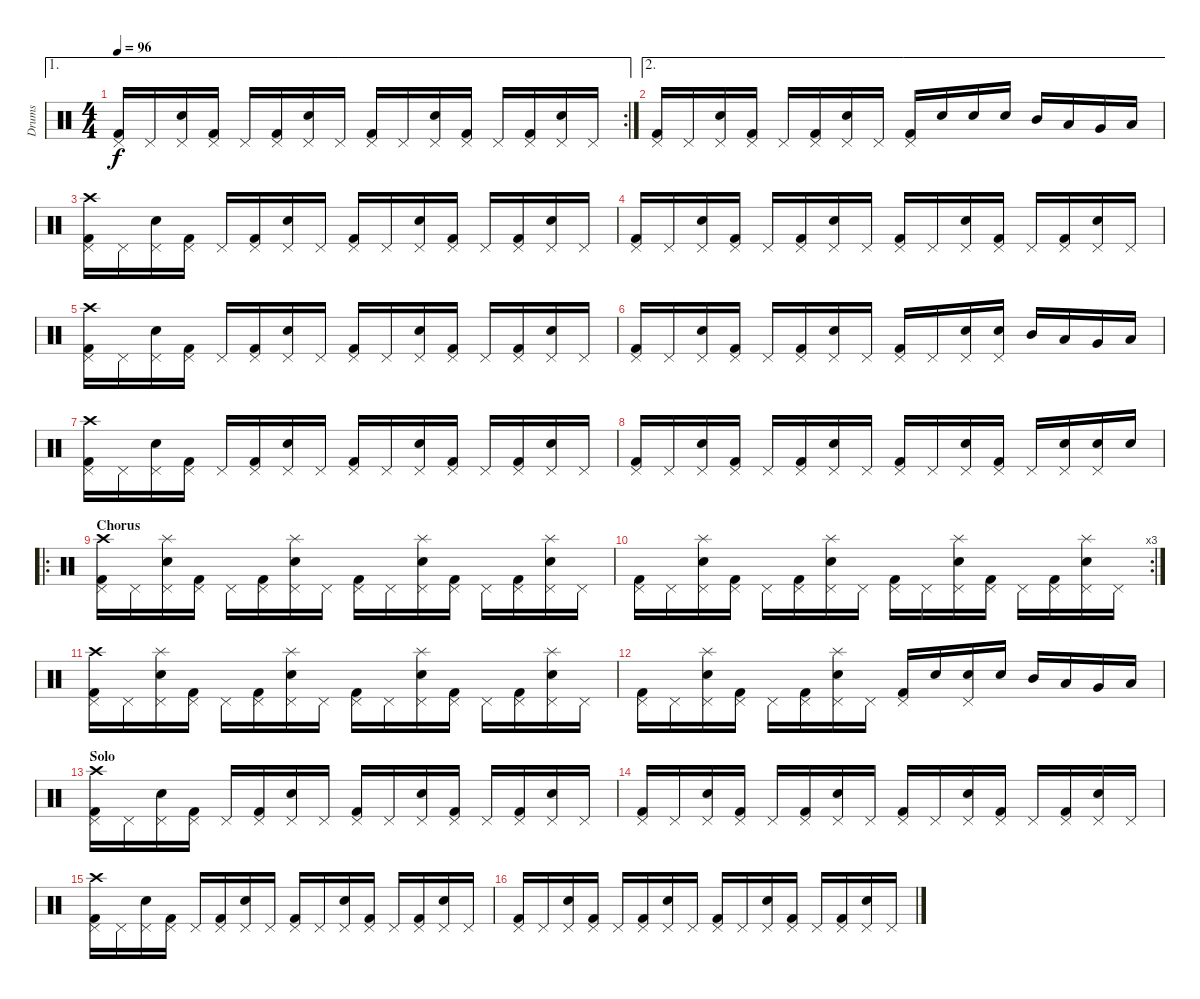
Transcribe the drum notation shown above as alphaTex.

\track ("Drums" "Drums") {instrument percussion}
\staff {score}
\articulation defaults
\ae 1
\rc 2
\ts (4 4)
\tempo 96
\clef neutral
\ks c
("Kick (hit) 2" "Pedal Hi-Hat (hit)").16{dy f} "Pedal Hi-Hat (hit)".16 ("Snare (hit) 2" "Pedal Hi-Hat (hit)").16 ("Kick (hit) 2" "Pedal Hi-Hat (hit)").16 "Pedal Hi-Hat (hit)".16 ("Kick (hit) 2" "Pedal Hi-Hat (hit)").16 ("Snare (hit) 2" "Pedal Hi-Hat (hit)").16 "Pedal Hi-Hat (hit)".16 ("Kick (hit) 2" "Pedal Hi-Hat (hit)").16 "Pedal Hi-Hat (hit)".16 ("Snare (hit) 2" "Pedal Hi-Hat (hit)").16 ("Kick (hit) 2" "Pedal Hi-Hat (hit)").16 "Pedal Hi-Hat (hit)".16 ("Kick (hit) 2" "Pedal Hi-Hat (hit)").16 ("Snare (hit) 2" "Pedal Hi-Hat (hit)").16 "Pedal Hi-Hat (hit)".16 |
\ae 2
("Kick (hit) 2" "Pedal Hi-Hat (hit)").16 "Pedal Hi-Hat (hit)".16 ("Snare (hit) 2" "Pedal Hi-Hat (hit)").16 ("Kick (hit) 2" "Pedal Hi-Hat (hit)").16 "Pedal Hi-Hat (hit)".16 ("Kick (hit) 2" "Pedal Hi-Hat (hit)").16 ("Snare (hit) 2" "Pedal Hi-Hat (hit)").16 "Pedal Hi-Hat (hit)".16 ("Kick (hit) 2" "Pedal Hi-Hat (hit)").16 "Snare (hit) 2".16 "Snare (hit) 2".16 "Snare (hit) 2".16 "Mid Tom (hit)".16 "Low Tom (hit)".16 "Very Low Tom (hit)".16 "Low Floor Tom (hit)".16 |
("Kick (hit) 2" "Pedal Hi-Hat (hit)" "Crash high (hit)").16 "Pedal Hi-Hat (hit)".16 ("Snare (hit) 2" "Pedal Hi-Hat (hit)").16 ("Kick (hit) 2" "Pedal Hi-Hat (hit)").16 "Pedal Hi-Hat (hit)".16 ("Kick (hit) 2" "Pedal Hi-Hat (hit)").16 ("Snare (hit) 2" "Pedal Hi-Hat (hit)").16 "Pedal Hi-Hat (hit)".16 ("Kick (hit) 2" "Pedal Hi-Hat (hit)").16 "Pedal Hi-Hat (hit)".16 ("Snare (hit) 2" "Pedal Hi-Hat (hit)").16 ("Kick (hit) 2" "Pedal Hi-Hat (hit)").16 "Pedal Hi-Hat (hit)".16 ("Kick (hit) 2" "Pedal Hi-Hat (hit)").16 ("Snare (hit) 2" "Pedal Hi-Hat (hit)").16 "Pedal Hi-Hat (hit)".16 |
("Kick (hit) 2" "Pedal Hi-Hat (hit)").16 "Pedal Hi-Hat (hit)".16 ("Snare (hit) 2" "Pedal Hi-Hat (hit)").16 ("Kick (hit) 2" "Pedal Hi-Hat (hit)").16 "Pedal Hi-Hat (hit)".16 ("Kick (hit) 2" "Pedal Hi-Hat (hit)").16 ("Snare (hit) 2" "Pedal Hi-Hat (hit)").16 "Pedal Hi-Hat (hit)".16 ("Kick (hit) 2" "Pedal Hi-Hat (hit)").16 "Pedal Hi-Hat (hit)".16 ("Snare (hit) 2" "Pedal Hi-Hat (hit)").16 ("Kick (hit) 2" "Pedal Hi-Hat (hit)").16 "Pedal Hi-Hat (hit)".16 ("Kick (hit) 2" "Pedal Hi-Hat (hit)").16 ("Snare (hit) 2" "Pedal Hi-Hat (hit)").16 "Pedal Hi-Hat (hit)".16 |
("Kick (hit) 2" "Pedal Hi-Hat (hit)" "Crash high (hit)").16 "Pedal Hi-Hat (hit)".16 ("Snare (hit) 2" "Pedal Hi-Hat (hit)").16 ("Kick (hit) 2" "Pedal Hi-Hat (hit)").16 "Pedal Hi-Hat (hit)".16 ("Kick (hit) 2" "Pedal Hi-Hat (hit)").16 ("Snare (hit) 2" "Pedal Hi-Hat (hit)").16 "Pedal Hi-Hat (hit)".16 ("Kick (hit) 2" "Pedal Hi-Hat (hit)").16 "Pedal Hi-Hat (hit)".16 ("Snare (hit) 2" "Pedal Hi-Hat (hit)").16 ("Kick (hit) 2" "Pedal Hi-Hat (hit)").16 "Pedal Hi-Hat (hit)".16 ("Kick (hit) 2" "Pedal Hi-Hat (hit)").16 ("Snare (hit) 2" "Pedal Hi-Hat (hit)").16 "Pedal Hi-Hat (hit)".16 |
("Kick (hit) 2" "Pedal Hi-Hat (hit)").16 "Pedal Hi-Hat (hit)".16 ("Snare (hit) 2" "Pedal Hi-Hat (hit)").16 ("Kick (hit) 2" "Pedal Hi-Hat (hit)").16 "Pedal Hi-Hat (hit)".16 ("Kick (hit) 2" "Pedal Hi-Hat (hit)").16 ("Snare (hit) 2" "Pedal Hi-Hat (hit)").16 "Pedal Hi-Hat (hit)".16 ("Kick (hit) 2" "Pedal Hi-Hat (hit)").16 "Pedal Hi-Hat (hit)".16 ("Snare (hit) 2" "Pedal Hi-Hat (hit)").16 ("Snare (hit) 2" "Pedal Hi-Hat (hit)").16 "Mid Tom (hit)".16 "Low Tom (hit)".16 "Very Low Tom (hit)".16 "Low Floor Tom (hit)".16 |
("Kick (hit) 2" "Pedal Hi-Hat (hit)" "Crash high (hit)").16 "Pedal Hi-Hat (hit)".16 ("Snare (hit) 2" "Pedal Hi-Hat (hit)").16 ("Kick (hit) 2" "Pedal Hi-Hat (hit)").16 "Pedal Hi-Hat (hit)".16 ("Kick (hit) 2" "Pedal Hi-Hat (hit)").16 ("Snare (hit) 2" "Pedal Hi-Hat (hit)").16 "Pedal Hi-Hat (hit)".16 ("Kick (hit) 2" "Pedal Hi-Hat (hit)").16 "Pedal Hi-Hat (hit)".16 ("Snare (hit) 2" "Pedal Hi-Hat (hit)").16 ("Kick (hit) 2" "Pedal Hi-Hat (hit)").16 "Pedal Hi-Hat (hit)".16 ("Kick (hit) 2" "Pedal Hi-Hat (hit)").16 ("Snare (hit) 2" "Pedal Hi-Hat (hit)").16 "Pedal Hi-Hat (hit)".16 |
("Kick (hit) 2" "Pedal Hi-Hat (hit)").16 "Pedal Hi-Hat (hit)".16 ("Snare (hit) 2" "Pedal Hi-Hat (hit)").16 ("Kick (hit) 2" "Pedal Hi-Hat (hit)").16 "Pedal Hi-Hat (hit)".16 ("Kick (hit) 2" "Pedal Hi-Hat (hit)").16 ("Snare (hit) 2" "Pedal Hi-Hat (hit)").16 "Pedal Hi-Hat (hit)".16 ("Kick (hit) 2" "Pedal Hi-Hat (hit)").16 "Pedal Hi-Hat (hit)".16 ("Snare (hit) 2" "Pedal Hi-Hat (hit)").16 ("Kick (hit) 2" "Pedal Hi-Hat (hit)").16 "Pedal Hi-Hat (hit)".16 ("Snare (hit) 2" "Pedal Hi-Hat (hit)").16 ("Snare (hit) 2" "Pedal Hi-Hat (hit)").16 "Snare (hit) 2".16 |
\ro
\section ("" "Chorus")
("Kick (hit) 2" "Pedal Hi-Hat (hit)" "Crash high (hit)").16 "Pedal Hi-Hat (hit)".16 ("Snare (hit) 2" "Pedal Hi-Hat (hit)" "Splash (hit)").16 ("Kick (hit) 2" "Pedal Hi-Hat (hit)").16 "Pedal Hi-Hat (hit)".16 ("Kick (hit) 2" "Pedal Hi-Hat (hit)").16 ("Snare (hit) 2" "Pedal Hi-Hat (hit)" "Splash (hit)").16 "Pedal Hi-Hat (hit)".16 ("Kick (hit) 2" "Pedal Hi-Hat (hit)").16 "Pedal Hi-Hat (hit)".16 ("Snare (hit) 2" "Pedal Hi-Hat (hit)" "Splash (hit)").16 ("Kick (hit) 2" "Pedal Hi-Hat (hit)").16 "Pedal Hi-Hat (hit)".16 ("Kick (hit) 2" "Pedal Hi-Hat (hit)").16 ("Snare (hit) 2" "Pedal Hi-Hat (hit)" "Splash (hit)").16 "Pedal Hi-Hat (hit)".16 |
\rc 3
("Kick (hit) 2" "Pedal Hi-Hat (hit)").16 "Pedal Hi-Hat (hit)".16 ("Snare (hit) 2" "Pedal Hi-Hat (hit)" "Splash (hit)").16 ("Kick (hit) 2" "Pedal Hi-Hat (hit)").16 "Pedal Hi-Hat (hit)".16 ("Kick (hit) 2" "Pedal Hi-Hat (hit)").16 ("Snare (hit) 2" "Pedal Hi-Hat (hit)" "Splash (hit)").16 "Pedal Hi-Hat (hit)".16 ("Kick (hit) 2" "Pedal Hi-Hat (hit)").16 "Pedal Hi-Hat (hit)".16 ("Snare (hit) 2" "Pedal Hi-Hat (hit)" "Splash (hit)").16 ("Kick (hit) 2" "Pedal Hi-Hat (hit)").16 "Pedal Hi-Hat (hit)".16 ("Kick (hit) 2" "Pedal Hi-Hat (hit)").16 ("Snare (hit) 2" "Pedal Hi-Hat (hit)" "Splash (hit)").16 "Pedal Hi-Hat (hit)".16 |
("Kick (hit) 2" "Pedal Hi-Hat (hit)" "Crash high (hit)").16 "Pedal Hi-Hat (hit)".16 ("Snare (hit) 2" "Pedal Hi-Hat (hit)" "Splash (hit)").16 ("Kick (hit) 2" "Pedal Hi-Hat (hit)").16 "Pedal Hi-Hat (hit)".16 ("Kick (hit) 2" "Pedal Hi-Hat (hit)").16 ("Snare (hit) 2" "Pedal Hi-Hat (hit)" "Splash (hit)").16 "Pedal Hi-Hat (hit)".16 ("Kick (hit) 2" "Pedal Hi-Hat (hit)").16 "Pedal Hi-Hat (hit)".16 ("Snare (hit) 2" "Pedal Hi-Hat (hit)" "Splash (hit)").16 ("Kick (hit) 2" "Pedal Hi-Hat (hit)").16 "Pedal Hi-Hat (hit)".16 ("Kick (hit) 2" "Pedal Hi-Hat (hit)").16 ("Snare (hit) 2" "Pedal Hi-Hat (hit)" "Splash (hit)").16 "Pedal Hi-Hat (hit)".16 |
("Kick (hit) 2" "Pedal Hi-Hat (hit)").16 "Pedal Hi-Hat (hit)".16 ("Snare (hit) 2" "Pedal Hi-Hat (hit)" "Splash (hit)").16 ("Kick (hit) 2" "Pedal Hi-Hat (hit)").16 "Pedal Hi-Hat (hit)".16 ("Kick (hit) 2" "Pedal Hi-Hat (hit)").16 ("Snare (hit) 2" "Pedal Hi-Hat (hit)" "Splash (hit)").16 "Pedal Hi-Hat (hit)".16 ("Kick (hit) 2" "Pedal Hi-Hat (hit)").16 "Snare (hit) 2".16 ("Snare (hit) 2" "Pedal Hi-Hat (hit)").16 "Snare (hit) 2".16 "Mid Tom (hit)".16 "Low Tom (hit)".16 "Very Low Tom (hit)".16 "Low Floor Tom (hit)".16 |
\section ("" "Solo")
("Kick (hit) 2" "Pedal Hi-Hat (hit)" "Crash high (hit)").16 "Pedal Hi-Hat (hit)".16 ("Snare (hit) 2" "Pedal Hi-Hat (hit)").16 ("Kick (hit) 2" "Pedal Hi-Hat (hit)").16 "Pedal Hi-Hat (hit)".16 ("Kick (hit) 2" "Pedal Hi-Hat (hit)").16 ("Snare (hit) 2" "Pedal Hi-Hat (hit)").16 "Pedal Hi-Hat (hit)".16 ("Kick (hit) 2" "Pedal Hi-Hat (hit)").16 "Pedal Hi-Hat (hit)".16 ("Snare (hit) 2" "Pedal Hi-Hat (hit)").16 ("Kick (hit) 2" "Pedal Hi-Hat (hit)").16 "Pedal Hi-Hat (hit)".16 ("Kick (hit) 2" "Pedal Hi-Hat (hit)").16 ("Snare (hit) 2" "Pedal Hi-Hat (hit)").16 "Pedal Hi-Hat (hit)".16 |
("Kick (hit) 2" "Pedal Hi-Hat (hit)").16 "Pedal Hi-Hat (hit)".16 ("Snare (hit) 2" "Pedal Hi-Hat (hit)").16 ("Kick (hit) 2" "Pedal Hi-Hat (hit)").16 "Pedal Hi-Hat (hit)".16 ("Kick (hit) 2" "Pedal Hi-Hat (hit)").16 ("Snare (hit) 2" "Pedal Hi-Hat (hit)").16 "Pedal Hi-Hat (hit)".16 ("Kick (hit) 2" "Pedal Hi-Hat (hit)").16 "Pedal Hi-Hat (hit)".16 ("Snare (hit) 2" "Pedal Hi-Hat (hit)").16 ("Kick (hit) 2" "Pedal Hi-Hat (hit)").16 "Pedal Hi-Hat (hit)".16 ("Kick (hit) 2" "Pedal Hi-Hat (hit)").16 ("Snare (hit) 2" "Pedal Hi-Hat (hit)").16 "Pedal Hi-Hat (hit)".16 |
("Kick (hit) 2" "Pedal Hi-Hat (hit)" "Crash high (hit)").16 "Pedal Hi-Hat (hit)".16 ("Snare (hit) 2" "Pedal Hi-Hat (hit)").16 ("Kick (hit) 2" "Pedal Hi-Hat (hit)").16 "Pedal Hi-Hat (hit)".16 ("Kick (hit) 2" "Pedal Hi-Hat (hit)").16 ("Snare (hit) 2" "Pedal Hi-Hat (hit)").16 "Pedal Hi-Hat (hit)".16 ("Kick (hit) 2" "Pedal Hi-Hat (hit)").16 "Pedal Hi-Hat (hit)".16 ("Snare (hit) 2" "Pedal Hi-Hat (hit)").16 ("Kick (hit) 2" "Pedal Hi-Hat (hit)").16 "Pedal Hi-Hat (hit)".16 ("Kick (hit) 2" "Pedal Hi-Hat (hit)").16 ("Snare (hit) 2" "Pedal Hi-Hat (hit)").16 "Pedal Hi-Hat (hit)".16 |
("Kick (hit) 2" "Pedal Hi-Hat (hit)").16 "Pedal Hi-Hat (hit)".16 ("Snare (hit) 2" "Pedal Hi-Hat (hit)").16 ("Kick (hit) 2" "Pedal Hi-Hat (hit)").16 "Pedal Hi-Hat (hit)".16 ("Kick (hit) 2" "Pedal Hi-Hat (hit)").16 ("Snare (hit) 2" "Pedal Hi-Hat (hit)").16 "Pedal Hi-Hat (hit)".16 ("Kick (hit) 2" "Pedal Hi-Hat (hit)").16 "Pedal Hi-Hat (hit)".16 ("Snare (hit) 2" "Pedal Hi-Hat (hit)").16 ("Kick (hit) 2" "Pedal Hi-Hat (hit)").16 "Pedal Hi-Hat (hit)".16 ("Kick (hit) 2" "Pedal Hi-Hat (hit)").16 ("Snare (hit) 2" "Pedal Hi-Hat (hit)").16 "Pedal Hi-Hat (hit)".16
